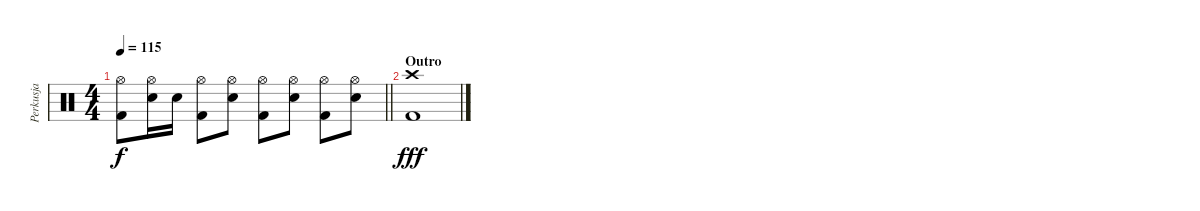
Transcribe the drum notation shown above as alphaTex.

\track ("Perkusja" "Perkusja") {instrument percussion}
\staff {score}
\articulation defaults
\ts (4 4)
\tempo 115
\clef neutral
\barLineRight lightlight
\ks c
("Hi-Hat (open)" "Kick (hit) 2").8{dy f} ("Hi-Hat (open)" "Snare (hit) 2").16 "Snare (hit) 2".16 ("Hi-Hat (open)" "Kick (hit) 2").8 ("Hi-Hat (open)" "Snare (hit) 2").8 ("Hi-Hat (open)" "Kick (hit) 2").8 ("Hi-Hat (open)" "Snare (hit) 2").8 ("Hi-Hat (open)" "Kick (hit) 2").8 ("Hi-Hat (open)" "Snare (hit) 2").8 |
\section ("" "Outro")
("Crash high (hit)" "Kick (hit) 2").1{dy fff}
